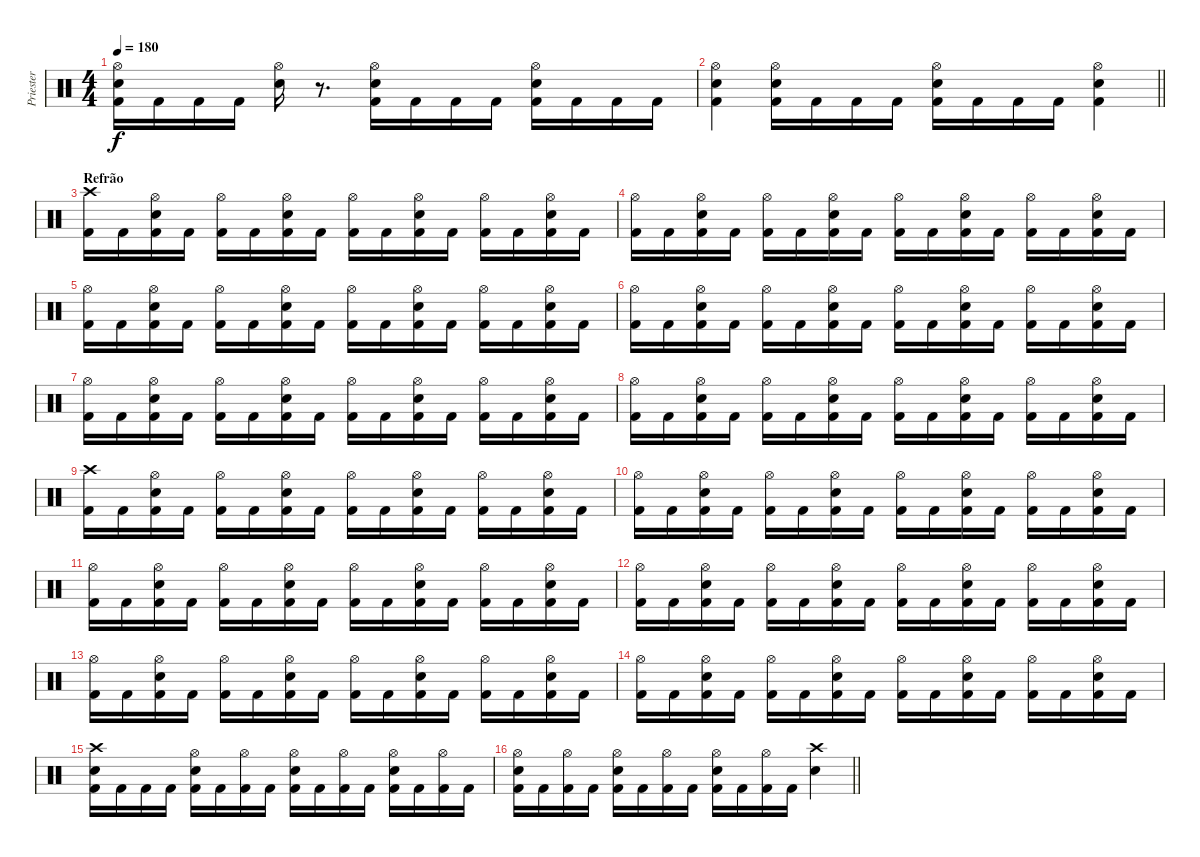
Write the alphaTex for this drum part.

\track ("Priester" "Priester") {instrument percussion}
\staff {score}
\articulation defaults
\ts (4 4)
\tempo 180
\clef neutral
\ks c
("Hi-Hat (open)" "Electric Snare (hit)" "Kick (hit) 2").16{dy f} "Kick (hit) 2".16 "Kick (hit) 2".16 "Kick (hit) 2".16 ("Hi-Hat (open)" "Electric Snare (hit)").16 r.8{d} ("Hi-Hat (open)" "Electric Snare (hit)" "Kick (hit) 2").16 "Kick (hit) 2".16 "Kick (hit) 2".16 "Kick (hit) 2".16 ("Hi-Hat (open)" "Electric Snare (hit)" "Kick (hit) 2").16 "Kick (hit) 2".16 "Kick (hit) 2".16 "Kick (hit) 2".16 |
\barLineRight lightlight
("Hi-Hat (open)" "Electric Snare (hit)" "Kick (hit) 2").4 ("Hi-Hat (open)" "Electric Snare (hit)" "Kick (hit) 2").16 "Kick (hit) 2".16 "Kick (hit) 2".16 "Kick (hit) 2".16 ("Hi-Hat (open)" "Electric Snare (hit)" "Kick (hit) 2").16 "Kick (hit) 2".16 "Kick (hit) 2".16 "Kick (hit) 2".16 ("Hi-Hat (open)" "Electric Snare (hit)" "Kick (hit) 2").4 |
\section ("" "Refrão")
("Crash high (hit)" "Kick (hit) 2").16 "Kick (hit) 2".16 ("Hi-Hat (open)" "Electric Snare (hit)" "Kick (hit) 2").16 "Kick (hit) 2".16 ("Hi-Hat (open)" "Kick (hit) 2").16 "Kick (hit) 2".16 ("Hi-Hat (open)" "Electric Snare (hit)" "Kick (hit) 2").16 "Kick (hit) 2".16 ("Hi-Hat (open)" "Kick (hit) 2").16 "Kick (hit) 2".16 ("Hi-Hat (open)" "Electric Snare (hit)" "Kick (hit) 2").16 "Kick (hit) 2".16 ("Hi-Hat (open)" "Kick (hit) 2").16 "Kick (hit) 2".16 ("Hi-Hat (open)" "Electric Snare (hit)" "Kick (hit) 2").16 "Kick (hit) 2".16 |
("Hi-Hat (open)" "Kick (hit) 2").16 "Kick (hit) 2".16 ("Hi-Hat (open)" "Electric Snare (hit)" "Kick (hit) 2").16 "Kick (hit) 2".16 ("Hi-Hat (open)" "Kick (hit) 2").16 "Kick (hit) 2".16 ("Hi-Hat (open)" "Electric Snare (hit)" "Kick (hit) 2").16 "Kick (hit) 2".16 ("Hi-Hat (open)" "Kick (hit) 2").16 "Kick (hit) 2".16 ("Hi-Hat (open)" "Electric Snare (hit)" "Kick (hit) 2").16 "Kick (hit) 2".16 ("Hi-Hat (open)" "Kick (hit) 2").16 "Kick (hit) 2".16 ("Hi-Hat (open)" "Electric Snare (hit)" "Kick (hit) 2").16 "Kick (hit) 2".16 |
("Hi-Hat (open)" "Kick (hit) 2").16 "Kick (hit) 2".16 ("Hi-Hat (open)" "Electric Snare (hit)" "Kick (hit) 2").16 "Kick (hit) 2".16 ("Hi-Hat (open)" "Kick (hit) 2").16 "Kick (hit) 2".16 ("Hi-Hat (open)" "Electric Snare (hit)" "Kick (hit) 2").16 "Kick (hit) 2".16 ("Hi-Hat (open)" "Kick (hit) 2").16 "Kick (hit) 2".16 ("Hi-Hat (open)" "Electric Snare (hit)" "Kick (hit) 2").16 "Kick (hit) 2".16 ("Hi-Hat (open)" "Kick (hit) 2").16 "Kick (hit) 2".16 ("Hi-Hat (open)" "Electric Snare (hit)" "Kick (hit) 2").16 "Kick (hit) 2".16 |
("Hi-Hat (open)" "Kick (hit) 2").16 "Kick (hit) 2".16 ("Hi-Hat (open)" "Electric Snare (hit)" "Kick (hit) 2").16 "Kick (hit) 2".16 ("Hi-Hat (open)" "Kick (hit) 2").16 "Kick (hit) 2".16 ("Hi-Hat (open)" "Electric Snare (hit)" "Kick (hit) 2").16 "Kick (hit) 2".16 ("Hi-Hat (open)" "Kick (hit) 2").16 "Kick (hit) 2".16 ("Hi-Hat (open)" "Electric Snare (hit)" "Kick (hit) 2").16 "Kick (hit) 2".16 ("Hi-Hat (open)" "Kick (hit) 2").16 "Kick (hit) 2".16 ("Hi-Hat (open)" "Electric Snare (hit)" "Kick (hit) 2").16 "Kick (hit) 2".16 |
("Hi-Hat (open)" "Kick (hit) 2").16 "Kick (hit) 2".16 ("Hi-Hat (open)" "Electric Snare (hit)" "Kick (hit) 2").16 "Kick (hit) 2".16 ("Hi-Hat (open)" "Kick (hit) 2").16 "Kick (hit) 2".16 ("Hi-Hat (open)" "Electric Snare (hit)" "Kick (hit) 2").16 "Kick (hit) 2".16 ("Hi-Hat (open)" "Kick (hit) 2").16 "Kick (hit) 2".16 ("Hi-Hat (open)" "Electric Snare (hit)" "Kick (hit) 2").16 "Kick (hit) 2".16 ("Hi-Hat (open)" "Kick (hit) 2").16 "Kick (hit) 2".16 ("Hi-Hat (open)" "Electric Snare (hit)" "Kick (hit) 2").16 "Kick (hit) 2".16 |
("Hi-Hat (open)" "Kick (hit) 2").16 "Kick (hit) 2".16 ("Hi-Hat (open)" "Electric Snare (hit)" "Kick (hit) 2").16 "Kick (hit) 2".16 ("Hi-Hat (open)" "Kick (hit) 2").16 "Kick (hit) 2".16 ("Hi-Hat (open)" "Electric Snare (hit)" "Kick (hit) 2").16 "Kick (hit) 2".16 ("Hi-Hat (open)" "Kick (hit) 2").16 "Kick (hit) 2".16 ("Hi-Hat (open)" "Electric Snare (hit)" "Kick (hit) 2").16 "Kick (hit) 2".16 ("Hi-Hat (open)" "Kick (hit) 2").16 "Kick (hit) 2".16 ("Hi-Hat (open)" "Electric Snare (hit)" "Kick (hit) 2").16 "Kick (hit) 2".16 |
("Crash high (hit)" "Kick (hit) 2").16 "Kick (hit) 2".16 ("Hi-Hat (open)" "Electric Snare (hit)" "Kick (hit) 2").16 "Kick (hit) 2".16 ("Hi-Hat (open)" "Kick (hit) 2").16 "Kick (hit) 2".16 ("Hi-Hat (open)" "Electric Snare (hit)" "Kick (hit) 2").16 "Kick (hit) 2".16 ("Hi-Hat (open)" "Kick (hit) 2").16 "Kick (hit) 2".16 ("Hi-Hat (open)" "Electric Snare (hit)" "Kick (hit) 2").16 "Kick (hit) 2".16 ("Hi-Hat (open)" "Kick (hit) 2").16 "Kick (hit) 2".16 ("Hi-Hat (open)" "Electric Snare (hit)" "Kick (hit) 2").16 "Kick (hit) 2".16 |
("Hi-Hat (open)" "Kick (hit) 2").16 "Kick (hit) 2".16 ("Hi-Hat (open)" "Electric Snare (hit)" "Kick (hit) 2").16 "Kick (hit) 2".16 ("Hi-Hat (open)" "Kick (hit) 2").16 "Kick (hit) 2".16 ("Hi-Hat (open)" "Electric Snare (hit)" "Kick (hit) 2").16 "Kick (hit) 2".16 ("Hi-Hat (open)" "Kick (hit) 2").16 "Kick (hit) 2".16 ("Hi-Hat (open)" "Electric Snare (hit)" "Kick (hit) 2").16 "Kick (hit) 2".16 ("Hi-Hat (open)" "Kick (hit) 2").16 "Kick (hit) 2".16 ("Hi-Hat (open)" "Electric Snare (hit)" "Kick (hit) 2").16 "Kick (hit) 2".16 |
("Hi-Hat (open)" "Kick (hit) 2").16 "Kick (hit) 2".16 ("Hi-Hat (open)" "Electric Snare (hit)" "Kick (hit) 2").16 "Kick (hit) 2".16 ("Hi-Hat (open)" "Kick (hit) 2").16 "Kick (hit) 2".16 ("Hi-Hat (open)" "Electric Snare (hit)" "Kick (hit) 2").16 "Kick (hit) 2".16 ("Hi-Hat (open)" "Kick (hit) 2").16 "Kick (hit) 2".16 ("Hi-Hat (open)" "Electric Snare (hit)" "Kick (hit) 2").16 "Kick (hit) 2".16 ("Hi-Hat (open)" "Kick (hit) 2").16 "Kick (hit) 2".16 ("Hi-Hat (open)" "Electric Snare (hit)" "Kick (hit) 2").16 "Kick (hit) 2".16 |
("Hi-Hat (open)" "Kick (hit) 2").16 "Kick (hit) 2".16 ("Hi-Hat (open)" "Electric Snare (hit)" "Kick (hit) 2").16 "Kick (hit) 2".16 ("Hi-Hat (open)" "Kick (hit) 2").16 "Kick (hit) 2".16 ("Hi-Hat (open)" "Electric Snare (hit)" "Kick (hit) 2").16 "Kick (hit) 2".16 ("Hi-Hat (open)" "Kick (hit) 2").16 "Kick (hit) 2".16 ("Hi-Hat (open)" "Electric Snare (hit)" "Kick (hit) 2").16 "Kick (hit) 2".16 ("Hi-Hat (open)" "Kick (hit) 2").16 "Kick (hit) 2".16 ("Hi-Hat (open)" "Electric Snare (hit)" "Kick (hit) 2").16 "Kick (hit) 2".16 |
("Hi-Hat (open)" "Kick (hit) 2").16 "Kick (hit) 2".16 ("Hi-Hat (open)" "Electric Snare (hit)" "Kick (hit) 2").16 "Kick (hit) 2".16 ("Hi-Hat (open)" "Kick (hit) 2").16 "Kick (hit) 2".16 ("Hi-Hat (open)" "Electric Snare (hit)" "Kick (hit) 2").16 "Kick (hit) 2".16 ("Hi-Hat (open)" "Kick (hit) 2").16 "Kick (hit) 2".16 ("Hi-Hat (open)" "Electric Snare (hit)" "Kick (hit) 2").16 "Kick (hit) 2".16 ("Hi-Hat (open)" "Kick (hit) 2").16 "Kick (hit) 2".16 ("Hi-Hat (open)" "Electric Snare (hit)" "Kick (hit) 2").16 "Kick (hit) 2".16 |
("Hi-Hat (open)" "Kick (hit) 2").16 "Kick (hit) 2".16 ("Hi-Hat (open)" "Electric Snare (hit)" "Kick (hit) 2").16 "Kick (hit) 2".16 ("Hi-Hat (open)" "Kick (hit) 2").16 "Kick (hit) 2".16 ("Hi-Hat (open)" "Electric Snare (hit)" "Kick (hit) 2").16 "Kick (hit) 2".16 ("Hi-Hat (open)" "Kick (hit) 2").16 "Kick (hit) 2".16 ("Hi-Hat (open)" "Electric Snare (hit)" "Kick (hit) 2").16 "Kick (hit) 2".16 ("Hi-Hat (open)" "Kick (hit) 2").16 "Kick (hit) 2".16 ("Hi-Hat (open)" "Electric Snare (hit)" "Kick (hit) 2").16 "Kick (hit) 2".16 |
("Crash high (hit)" "Electric Snare (hit)" "Kick (hit) 2").16 "Kick (hit) 2".16 "Kick (hit) 2".16 "Kick (hit) 2".16 ("Hi-Hat (open)" "Electric Snare (hit)" "Kick (hit) 2").16 "Kick (hit) 2".16 ("Hi-Hat (open)" "Kick (hit) 2").16 "Kick (hit) 2".16 ("Hi-Hat (open)" "Electric Snare (hit)" "Kick (hit) 2").16 "Kick (hit) 2".16 ("Hi-Hat (open)" "Kick (hit) 2").16 "Kick (hit) 2".16 ("Hi-Hat (open)" "Electric Snare (hit)" "Kick (hit) 2").16 "Kick (hit) 2".16 ("Hi-Hat (open)" "Kick (hit) 2").16 "Kick (hit) 2".16 |
\barLineRight lightlight
("Hi-Hat (open)" "Electric Snare (hit)" "Kick (hit) 2").16 "Kick (hit) 2".16 ("Hi-Hat (open)" "Kick (hit) 2").16 "Kick (hit) 2".16 ("Hi-Hat (open)" "Electric Snare (hit)" "Kick (hit) 2").16 "Kick (hit) 2".16 ("Hi-Hat (open)" "Kick (hit) 2").16 "Kick (hit) 2".16 ("Hi-Hat (open)" "Electric Snare (hit)" "Kick (hit) 2").16 "Kick (hit) 2".16 ("Hi-Hat (open)" "Kick (hit) 2").16 "Kick (hit) 2".16 ("Crash high (hit)" "Electric Snare (hit)").4
